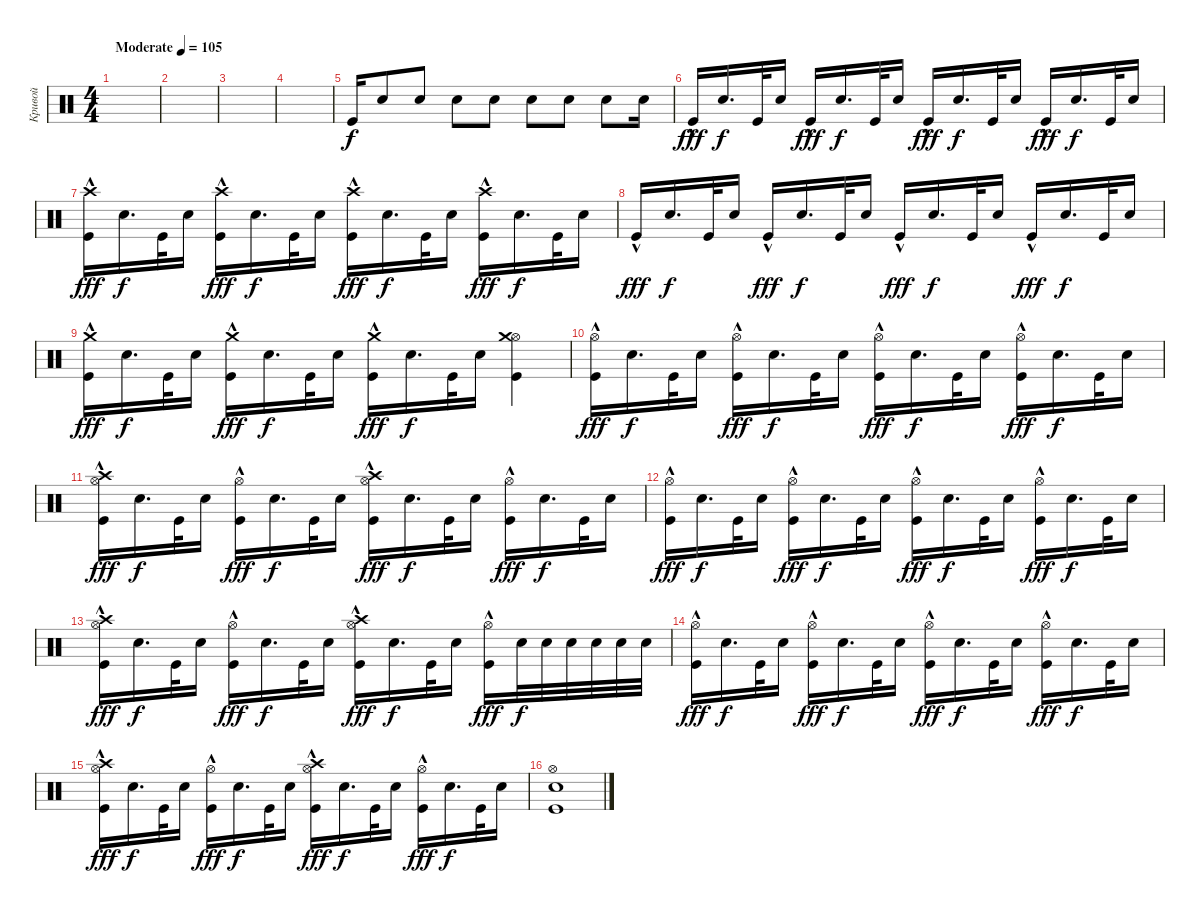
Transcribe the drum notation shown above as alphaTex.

\track ("Кривой" "Кривой") {instrument percussion}
\staff {score}
\articulation defaults
\ts (4 4)
\tempo (105 "Moderate")
\clef neutral
\ks c
|
|
|
|
"Kick (hit)".16 "Snare (hit) 2".8 "Snare (hit) 2".8 "Snare (hit) 2".8 "Snare (hit) 2".8 "Snare (hit) 2".8 "Snare (hit) 2".8 "Snare (hit) 2".8 "Snare (hit) 2".16 |
"Kick (hit)"{hac}.16{dy fff} "Snare (hit) 2".16{d dy f} "Kick (hit)".32 "Snare (hit) 2".16 "Kick (hit)"{hac}.16{dy fff} "Snare (hit) 2".16{d dy f} "Kick (hit)".32 "Snare (hit) 2".16 "Kick (hit)"{hac}.16{dy fff} "Snare (hit) 2".16{d dy f} "Kick (hit)".32 "Snare (hit) 2".16 "Kick (hit)"{hac}.16{dy fff} "Snare (hit) 2".16{d dy f} "Kick (hit)".32 "Snare (hit) 2".16 |
("Kick (hit)"{hac} "Crash high (hit)").16{dy fff} "Snare (hit) 2".16{d dy f} "Kick (hit)".32 "Snare (hit) 2".16 ("Kick (hit)"{hac} "Crash high (hit)").16{dy fff} "Snare (hit) 2".16{d dy f} "Kick (hit)".32 "Snare (hit) 2".16 ("Kick (hit)"{hac} "Crash high (hit)").16{dy fff} "Snare (hit) 2".16{d dy f} "Kick (hit)".32 "Snare (hit) 2".16 ("Kick (hit)"{hac} "Crash high (hit)").16{dy fff} "Snare (hit) 2".16{d dy f} "Kick (hit)".32 "Snare (hit) 2".16 |
"Kick (hit)"{hac}.16{dy fff} "Snare (hit) 2".16{d dy f} "Kick (hit)".32 "Snare (hit) 2".16 "Kick (hit)"{hac}.16{dy fff} "Snare (hit) 2".16{d dy f} "Kick (hit)".32 "Snare (hit) 2".16 "Kick (hit)"{hac}.16{dy fff} "Snare (hit) 2".16{d dy f} "Kick (hit)".32 "Snare (hit) 2".16 "Kick (hit)"{hac}.16{dy fff} "Snare (hit) 2".16{d dy f} "Kick (hit)".32 "Snare (hit) 2".16 |
("Kick (hit)"{hac} "Crash medium (hit)").16{dy fff} "Snare (hit) 2".16{d dy f} "Kick (hit)".32 "Snare (hit) 2".16 ("Kick (hit)"{hac} "Crash medium (hit)").16{dy fff} "Snare (hit) 2".16{d dy f} "Kick (hit)".32 "Snare (hit) 2".16 ("Kick (hit)"{hac} "Crash medium (hit)").16{dy fff} "Snare (hit) 2".16{d dy f} "Kick (hit)".32 "Snare (hit) 2".16 ("Kick (hit)" "Hi-Hat (open)" "Crash medium (hit)").4 |
("Kick (hit)"{hac} "Hi-Hat (open)").16{dy fff} "Snare (hit) 2".16{d dy f} "Kick (hit)".32 "Snare (hit) 2".16 ("Kick (hit)"{hac} "Hi-Hat (open)").16{dy fff} "Snare (hit) 2".16{d dy f} "Kick (hit)".32 "Snare (hit) 2".16 ("Kick (hit)"{hac} "Hi-Hat (open)").16{dy fff} "Snare (hit) 2".16{d dy f} "Kick (hit)".32 "Snare (hit) 2".16 ("Kick (hit)"{hac} "Hi-Hat (open)").16{dy fff} "Snare (hit) 2".16{d dy f} "Kick (hit)".32 "Snare (hit) 2".16 |
("Kick (hit)"{hac} "Hi-Hat (open)" "Crash high (hit)").16{dy fff} "Snare (hit) 2".16{d dy f} "Kick (hit)".32 "Snare (hit) 2".16 ("Kick (hit)"{hac} "Hi-Hat (open)").16{dy fff} "Snare (hit) 2".16{d dy f} "Kick (hit)".32 "Snare (hit) 2".16 ("Kick (hit)"{hac} "Hi-Hat (open)" "Crash high (hit)").16{dy fff} "Snare (hit) 2".16{d dy f} "Kick (hit)".32 "Snare (hit) 2".16 ("Kick (hit)"{hac} "Hi-Hat (open)").16{dy fff} "Snare (hit) 2".16{d dy f} "Kick (hit)".32 "Snare (hit) 2".16 |
("Kick (hit)"{hac} "Hi-Hat (open)").16{dy fff} "Snare (hit) 2".16{d dy f} "Kick (hit)".32 "Snare (hit) 2".16 ("Kick (hit)"{hac} "Hi-Hat (open)").16{dy fff} "Snare (hit) 2".16{d dy f} "Kick (hit)".32 "Snare (hit) 2".16 ("Kick (hit)"{hac} "Hi-Hat (open)").16{dy fff} "Snare (hit) 2".16{d dy f} "Kick (hit)".32 "Snare (hit) 2".16 ("Kick (hit)"{hac} "Hi-Hat (open)").16{dy fff} "Snare (hit) 2".16{d dy f} "Kick (hit)".32 "Snare (hit) 2".16 |
("Kick (hit)"{hac} "Hi-Hat (open)" "Crash high (hit)").16{dy fff} "Snare (hit) 2".16{d dy f} "Kick (hit)".32 "Snare (hit) 2".16 ("Kick (hit)"{hac} "Hi-Hat (open)").16{dy fff} "Snare (hit) 2".16{d dy f} "Kick (hit)".32 "Snare (hit) 2".16 ("Kick (hit)"{hac} "Hi-Hat (open)" "Crash high (hit)").16{dy fff} "Snare (hit) 2".16{d dy f} "Kick (hit)".32 "Snare (hit) 2".16 ("Kick (hit)"{hac} "Hi-Hat (open)").16{dy fff} "Snare (hit) 2".32{dy f} "Snare (hit) 2".32 "Snare (hit) 2".32 "Snare (hit) 2".32 "Snare (hit) 2".32 "Snare (hit) 2".32 |
("Kick (hit)"{hac} "Hi-Hat (open)").16{dy fff} "Snare (hit) 2".16{d dy f} "Kick (hit)".32 "Snare (hit) 2".16 ("Kick (hit)"{hac} "Hi-Hat (open)").16{dy fff} "Snare (hit) 2".16{d dy f} "Kick (hit)".32 "Snare (hit) 2".16 ("Kick (hit)"{hac} "Hi-Hat (open)").16{dy fff} "Snare (hit) 2".16{d dy f} "Kick (hit)".32 "Snare (hit) 2".16 ("Kick (hit)"{hac} "Hi-Hat (open)").16{dy fff} "Snare (hit) 2".16{d dy f} "Kick (hit)".32 "Snare (hit) 2".16 |
("Kick (hit)"{hac} "Hi-Hat (open)" "Crash high (hit)").16{dy fff} "Snare (hit) 2".16{d dy f} "Kick (hit)".32 "Snare (hit) 2".16 ("Kick (hit)"{hac} "Hi-Hat (open)").16{dy fff} "Snare (hit) 2".16{d dy f} "Kick (hit)".32 "Snare (hit) 2".16 ("Kick (hit)"{hac} "Hi-Hat (open)" "Crash high (hit)").16{dy fff} "Snare (hit) 2".16{d dy f} "Kick (hit)".32 "Snare (hit) 2".16 ("Kick (hit)"{hac} "Hi-Hat (open)").16{dy fff} "Snare (hit) 2".16{d dy f} "Kick (hit)".32 "Snare (hit) 2".16 |
("Kick (hit)" "Snare (hit) 2" "Hi-Hat (open)").1
